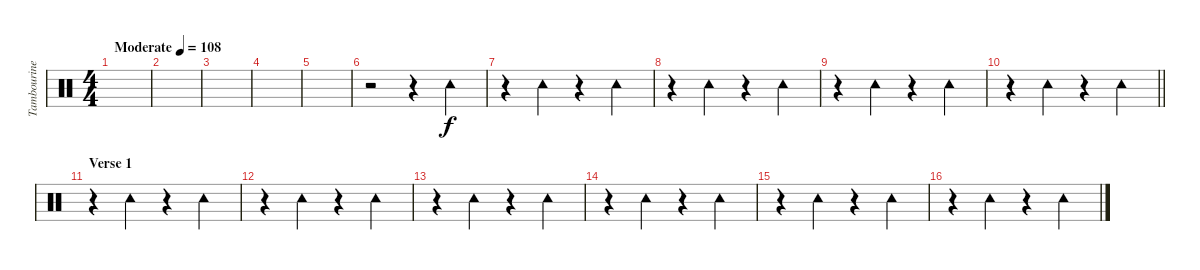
\track ("Tambourine" "Tambourine") {instrument percussion}
\staff {score}
\articulation defaults
\ts (4 4)
\tempo (108 "Moderate")
\clef neutral
\ks c
|
|
|
|
|
r.2 r.4 "Tambourine (hit)".4{volume 7} |
r.4 "Tambourine (hit)".4 r.4 "Tambourine (hit)".4 |
r.4 "Tambourine (hit)".4 r.4 "Tambourine (hit)".4 |
r.4 "Tambourine (hit)".4 r.4 "Tambourine (hit)".4 |
\barLineRight lightlight
r.4 "Tambourine (hit)".4 r.4 "Tambourine (hit)".4 |
\section ("" "Verse 1")
r.4 "Tambourine (hit)".4 r.4 "Tambourine (hit)".4 |
r.4 "Tambourine (hit)".4 r.4 "Tambourine (hit)".4 |
r.4 "Tambourine (hit)".4 r.4 "Tambourine (hit)".4 |
r.4 "Tambourine (hit)".4 r.4 "Tambourine (hit)".4 |
r.4 "Tambourine (hit)".4 r.4 "Tambourine (hit)".4 |
r.4 "Tambourine (hit)".4 r.4 "Tambourine (hit)".4
